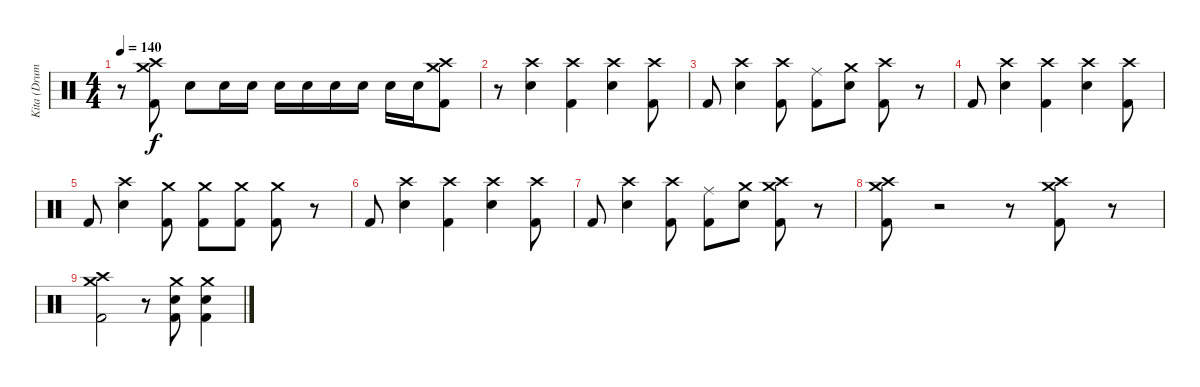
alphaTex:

\track ("Kita (Drums)" "Kita (Drum") {instrument percussion}
\staff {score}
\articulation defaults
\ts (4 4)
\tempo 140
\clef neutral
\ks c
r.8{dy f} ("Crash medium (hit)" "Crash high (hit)" "Kick (hit) 2").8 "Electric Snare (hit)".8 "Electric Snare (hit)".16 "Electric Snare (hit)".16 "Electric Snare (hit)".16 "Electric Snare (hit)".16 "Electric Snare (hit)".16 "Electric Snare (hit)".16 "Electric Snare (hit)".16 "Electric Snare (hit)".16 ("Crash medium (hit)" "Crash high (hit)" "Kick (hit) 2").8 |
r.8 ("Crash high (hit)" "Electric Snare (hit)").4 ("Crash high (hit)" "Kick (hit) 2").4 ("Crash high (hit)" "Electric Snare (hit)").4 ("Crash high (hit)" "Kick (hit) 2").8 |
"Kick (hit) 2".8 ("Crash high (hit)" "Electric Snare (hit)").4 ("Crash high (hit)" "Kick (hit) 2").8 ("Ride (middle)" "Kick (hit) 2").8 ("Crash medium (hit)" "Electric Snare (hit)").8 ("Crash high (hit)" "Kick (hit) 2").8 r.8 |
"Kick (hit) 2".8 ("Crash high (hit)" "Electric Snare (hit)").4 ("Crash high (hit)" "Kick (hit) 2").4 ("Crash high (hit)" "Electric Snare (hit)").4 ("Crash high (hit)" "Kick (hit) 2").8 |
"Kick (hit) 2".8 ("Crash high (hit)" "Electric Snare (hit)").4 ("Crash medium (hit)" "Kick (hit) 2").8 ("Crash medium (hit)" "Kick (hit) 2").8 ("Crash medium (hit)" "Kick (hit) 2").8 ("Crash medium (hit)" "Kick (hit) 2").8 r.8 |
"Kick (hit) 2".8 ("Crash high (hit)" "Electric Snare (hit)").4 ("Crash high (hit)" "Kick (hit) 2").4 ("Crash high (hit)" "Electric Snare (hit)").4 ("Crash high (hit)" "Kick (hit) 2").8 |
"Kick (hit) 2".8 ("Crash high (hit)" "Electric Snare (hit)").4 ("Crash high (hit)" "Kick (hit) 2").8 ("Ride (middle)" "Kick (hit) 2").8 ("Crash medium (hit)" "Electric Snare (hit)").8 ("Crash medium (hit)" "Crash high (hit)" "Kick (hit) 2").8 r.8 |
("Crash medium (hit)" "Crash high (hit)" "Kick (hit) 2").8 r.2 r.8 ("Crash medium (hit)" "Crash high (hit)" "Kick (hit) 2").8 r.8 |
("Crash medium (hit)" "Crash high (hit)" "Kick (hit) 2").2 r.8 ("Crash medium (hit)" "Electric Snare (hit)" "Kick (hit) 2").8 ("Crash medium (hit)" "Electric Snare (hit)" "Kick (hit) 2").4
